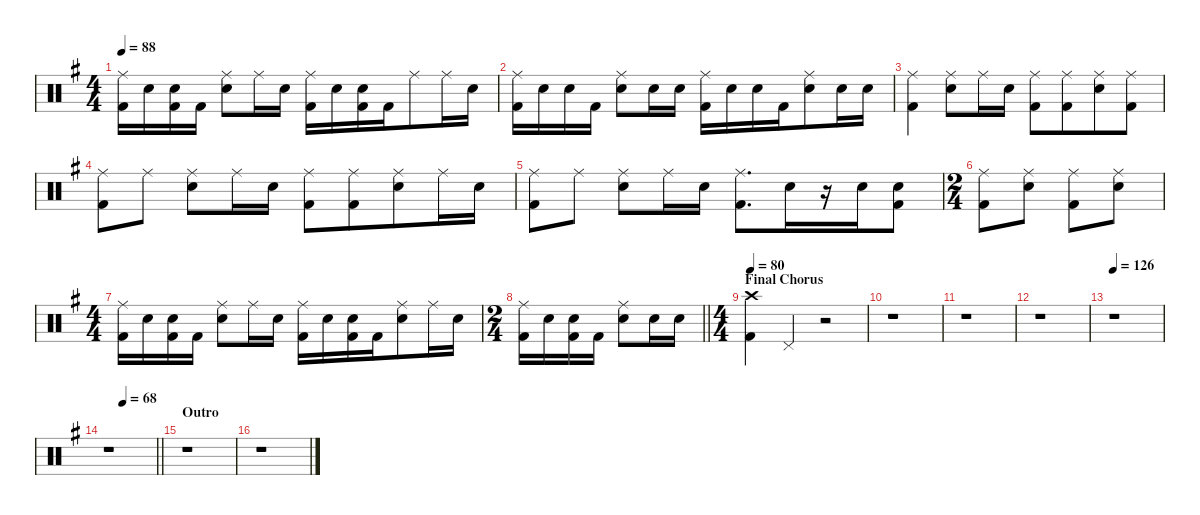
\defaultSystemsLayout 4
\hideDynamics
\bracketExtendMode nobrackets
\singleTrackTrackNamePolicy hidden
\multiTrackTrackNamePolicy hidden
\firstSystemTrackNameMode fullname
\firstSystemTrackNameOrientation horizontal
\otherSystemsTrackNameOrientation horizontal
\track ("Drums" "drm.") {instrument percussion}
\staff {score}
\articulation defaults
\ts (4 4)
\beaming (8 2 2 4)
\tempo 88
\clef neutral
\ks g
("Ride (middle)"{acc forcenatural} "Kick (hit) 2"{acc forcenatural}).16{dy f beam Down} "Snare (hit) 2"{acc forcenatural}.16{beam Down} ("Snare (hit) 2"{acc forcenatural} "Kick (hit) 2"{acc forcenatural}).16{beam Down} "Kick (hit) 2"{acc forcenatural}.16{beam Down} ("Ride (middle)"{acc forcenatural} "Snare (hit) 2"{acc forcenatural}).8{beam Down} "Ride (middle)"{acc forcenatural}.16{beam Down} "Snare (hit) 2"{acc forcenatural}.16{beam Down} ("Ride (middle)"{acc forcenatural} "Kick (hit) 2"{acc forcenatural}).16{beam Down} "Snare (hit) 2"{acc forcenatural}.16{beam Down} ("Snare (hit) 2"{acc forcenatural} "Kick (hit) 2"{acc forcenatural}).16{beam Down} "Kick (hit) 2"{acc forcenatural}.16{beam Down} "Ride (middle)"{acc forcenatural}.8{beam Down} "Ride (middle)"{acc forcenatural}.16{beam Down} "Snare (hit) 2"{acc forcenatural}.16{beam Down} |
("Ride (middle)"{acc forcenatural} "Kick (hit) 2"{acc forcenatural}).16{beam Down} "Snare (hit) 2"{acc forcenatural}.16{beam Down} "Snare (hit) 2"{acc forcenatural}.16{beam Down} "Kick (hit) 2"{acc forcenatural}.16{beam Down} ("Ride (middle)"{acc forcenatural} "Snare (hit) 2"{acc forcenatural}).8{beam Down} "Snare (hit) 2"{acc forcenatural}.16{beam Down} "Snare (hit) 2"{acc forcenatural}.16{beam Down} ("Ride (middle)"{acc forcenatural} "Kick (hit) 2"{acc forcenatural}).16{beam Down} "Snare (hit) 2"{acc forcenatural}.16{beam Down} "Snare (hit) 2"{acc forcenatural}.16{beam Down} "Kick (hit) 2"{acc forcenatural}.16{beam Down} ("Ride (middle)"{acc forcenatural} "Snare (hit) 2"{acc forcenatural}).8{beam Down} "Snare (hit) 2"{acc forcenatural}.16{beam Down} "Snare (hit) 2"{acc forcenatural}.16{beam Down} |
("Ride (middle)"{acc forcenatural} "Kick (hit) 2"{acc forcenatural}).4{beam Down} ("Ride (middle)"{acc forcenatural} "Snare (hit) 2"{acc forcenatural}).8{beam Down} "Ride (middle)"{acc forcenatural}.16{beam Down} "Snare (hit) 2"{acc forcenatural}.16{beam Down} ("Ride (middle)"{acc forcenatural} "Kick (hit) 2"{acc forcenatural}).8{beam Down} ("Ride (middle)"{acc forcenatural} "Kick (hit) 2"{acc forcenatural}).8{beam Down} ("Ride (middle)"{acc forcenatural} "Snare (hit) 2"{acc forcenatural}).8{beam Down} ("Ride (middle)"{acc forcenatural} "Kick (hit) 2"{acc forcenatural}).8{beam Down} |
("Ride (middle)"{acc forcenatural} "Kick (hit) 2"{acc forcenatural}).8{beam Down} "Ride (middle)"{acc forcenatural}.8{beam Down} ("Ride (middle)"{acc forcenatural} "Snare (hit) 2"{acc forcenatural}).8{beam Down} "Ride (middle)"{acc forcenatural}.16{beam Down} "Snare (hit) 2"{acc forcenatural}.16{beam Down} ("Ride (middle)"{acc forcenatural} "Kick (hit) 2"{acc forcenatural}).8{beam Down} ("Ride (middle)"{acc forcenatural} "Kick (hit) 2"{acc forcenatural}).8{beam Down} ("Ride (middle)"{acc forcenatural} "Snare (hit) 2"{acc forcenatural}).8{beam Down} "Ride (middle)"{acc forcenatural}.16{beam Down} "Snare (hit) 2"{acc forcenatural}.16{beam Down} |
("Ride (middle)"{acc forcenatural} "Kick (hit) 2"{acc forcenatural}).8{beam Down} "Ride (middle)"{acc forcenatural}.8{beam Down} ("Ride (middle)"{acc forcenatural} "Snare (hit) 2"{acc forcenatural}).8{beam Down} "Ride (middle)"{acc forcenatural}.16{beam Down} "Snare (hit) 2"{acc forcenatural}.16{beam Down} ("Ride (middle)"{acc forcenatural} "Kick (hit) 2"{acc forcenatural}).8{d beam Down} "Snare (hit) 2"{acc forcenatural}.16{beam Down} r.16{beam Down} "Snare (hit) 2"{acc forcenatural}.16{beam Down} ("Snare (hit) 2"{acc forcenatural} "Kick (hit) 2"{acc forcenatural}).8{beam Down} |
\ts (2 4)
\beaming (8 2 2)
("Ride (middle)"{acc forcenatural} "Kick (hit) 2"{acc forcenatural}).8{beam Down} ("Ride (middle)"{acc forcenatural} "Snare (hit) 2"{acc forcenatural}).8{beam Down} ("Ride (middle)"{acc forcenatural} "Kick (hit) 2"{acc forcenatural}).8{beam Down} ("Ride (middle)"{acc forcenatural} "Snare (hit) 2"{acc forcenatural}).8{beam Down} |
\ts (4 4)
\beaming (8 2 2 4)
("Ride (middle)"{acc forcenatural} "Kick (hit) 2"{acc forcenatural}).16{beam Down} "Snare (hit) 2"{acc forcenatural}.16{beam Down} ("Snare (hit) 2"{acc forcenatural} "Kick (hit) 2"{acc forcenatural}).16{beam Down} "Kick (hit) 2"{acc forcenatural}.16{beam Down} ("Ride (middle)"{acc forcenatural} "Snare (hit) 2"{acc forcenatural}).8{beam Down} "Ride (middle)"{acc forcenatural}.16{beam Down} "Snare (hit) 2"{acc forcenatural}.16{beam Down} ("Ride (middle)"{acc forcenatural} "Kick (hit) 2"{acc forcenatural}).16{beam Down} "Snare (hit) 2"{acc forcenatural}.16{beam Down} ("Snare (hit) 2"{acc forcenatural} "Kick (hit) 2"{acc forcenatural}).16{beam Down} "Kick (hit) 2"{acc forcenatural}.16{beam Down} ("Ride (middle)"{acc forcenatural} "Snare (hit) 2"{acc forcenatural}).8{beam Down} "Ride (middle)"{acc forcenatural}.16{beam Down} "Snare (hit) 2"{acc forcenatural}.16{beam Down} |
\ts (2 4)
\beaming (8 2 2)
\barLineRight lightlight
("Ride (middle)"{acc forcenatural} "Kick (hit) 2"{acc forcenatural}).16{beam Down} "Snare (hit) 2"{acc forcenatural}.16{beam Down} ("Snare (hit) 2"{acc forcenatural} "Kick (hit) 2"{acc forcenatural}).16{beam Down} "Kick (hit) 2"{acc forcenatural}.16{beam Down} ("Ride (middle)"{acc forcenatural} "Snare (hit) 2"{acc forcenatural}).8{beam Down} "Snare (hit) 2"{acc forcenatural}.16{beam Down} "Snare (hit) 2"{acc forcenatural}.16{beam Down} |
\ts (4 4)
\beaming (8 2 2 2 2)
\section ("" "Final Chorus")
\tempo 80
("Crash high (hit)"{acc forcenatural} "Kick (hit) 2"{acc forcenatural}).4{beam Down} "Pedal Hi-Hat (hit)"{acc forcenatural}.4{beam Up} r.2{beam Up} |
r.1{beam Down} |
r.1{beam Down} |
r.1{beam Down} |
\tempo 126
r.1{beam Down} |
\tempo (68 0.3125)
\barLineRight lightlight
r.1{beam Down} |
\section ("" "Outro")
r.1{beam Down} |
r.1{beam Down}
